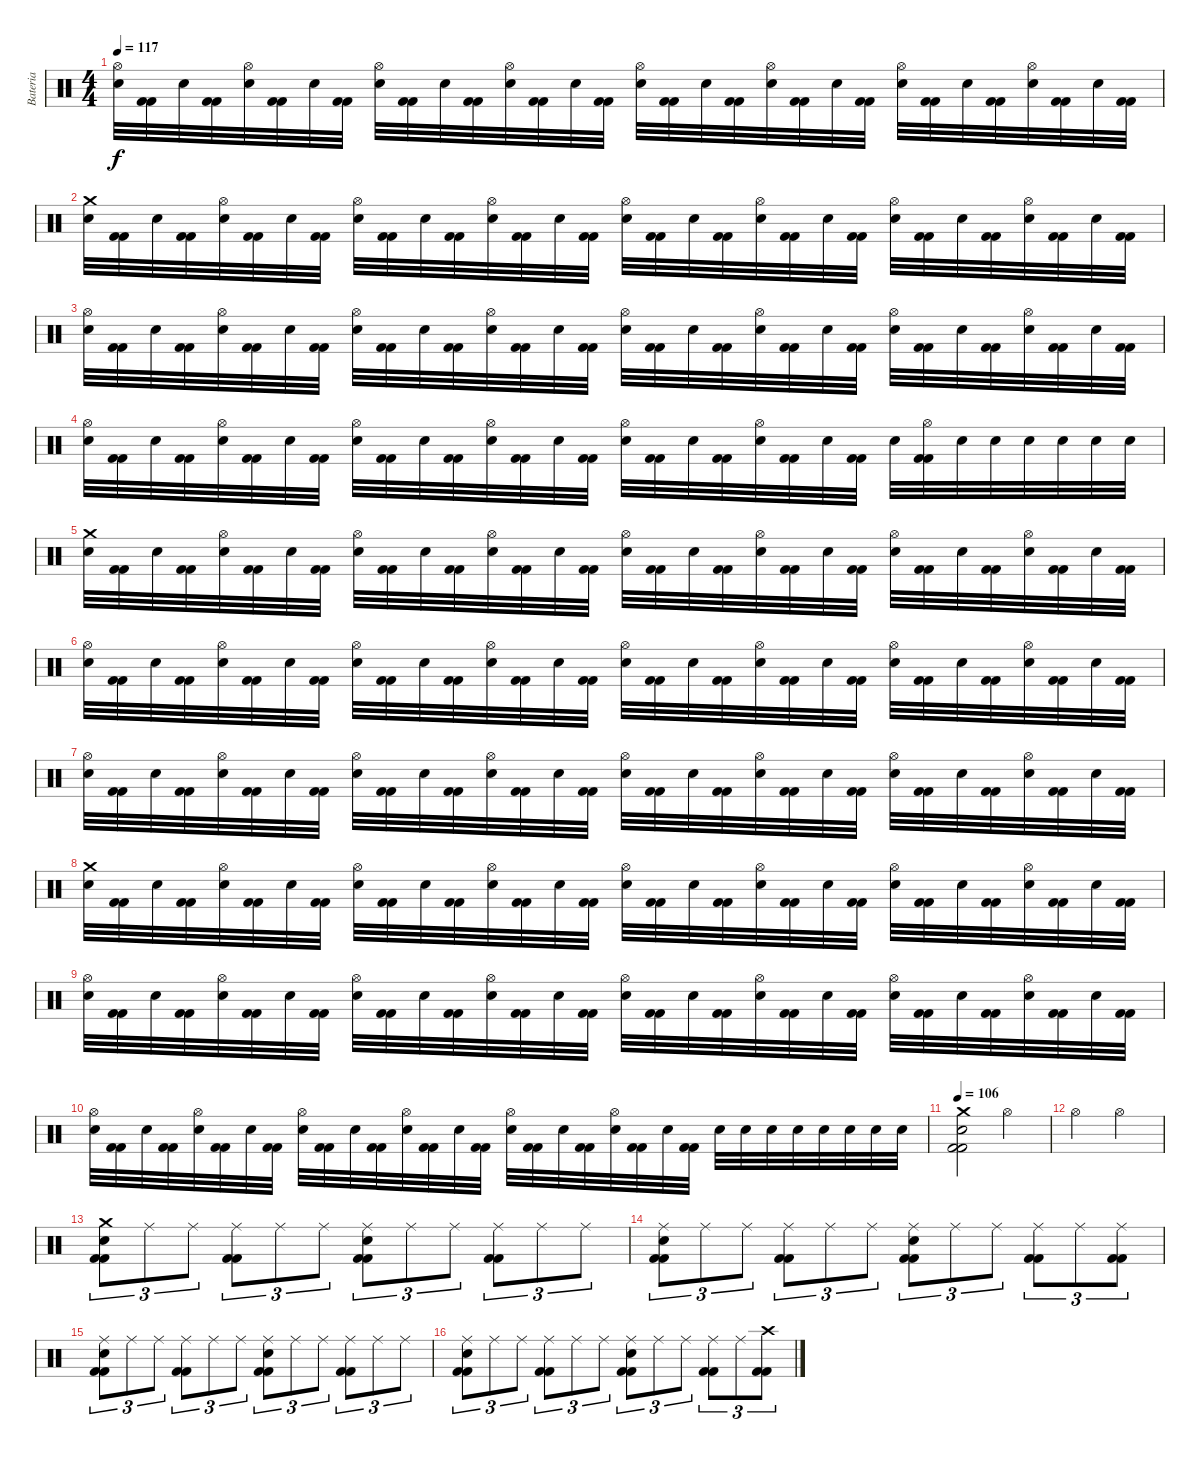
\track ("Bateria" "Bateria") {instrument percussion}
\staff {score}
\articulation defaults
\ts (4 4)
\tempo 117
\clef neutral
\ks c
("Hi-Hat (open)" "Snare (hit) 2").32{dy f} ("Kick (hit) 2" "Kick (hit) 2").32 "Snare (hit) 2".32 ("Kick (hit) 2" "Kick (hit) 2").32 ("Hi-Hat (open)" "Snare (hit) 2").32 ("Kick (hit) 2" "Kick (hit) 2").32 "Snare (hit) 2".32 ("Kick (hit) 2" "Kick (hit) 2").32 ("Hi-Hat (open)" "Snare (hit) 2").32 ("Kick (hit) 2" "Kick (hit) 2").32 "Snare (hit) 2".32 ("Kick (hit) 2" "Kick (hit) 2").32 ("Hi-Hat (open)" "Snare (hit) 2").32 ("Kick (hit) 2" "Kick (hit) 2").32 "Snare (hit) 2".32 ("Kick (hit) 2" "Kick (hit) 2").32 ("Hi-Hat (open)" "Snare (hit) 2").32 ("Kick (hit) 2" "Kick (hit) 2").32 "Snare (hit) 2".32 ("Kick (hit) 2" "Kick (hit) 2").32 ("Hi-Hat (open)" "Snare (hit) 2").32 ("Kick (hit) 2" "Kick (hit) 2").32 "Snare (hit) 2".32 ("Kick (hit) 2" "Kick (hit) 2").32 ("Hi-Hat (open)" "Snare (hit) 2").32 ("Kick (hit) 2" "Kick (hit) 2").32 "Snare (hit) 2".32 ("Kick (hit) 2" "Kick (hit) 2").32 ("Hi-Hat (open)" "Snare (hit) 2").32 ("Kick (hit) 2" "Kick (hit) 2").32 "Snare (hit) 2".32 ("Kick (hit) 2" "Kick (hit) 2").32 |
("Crash medium (hit)" "Snare (hit) 2").32 ("Kick (hit) 2" "Kick (hit) 2").32 "Snare (hit) 2".32 ("Kick (hit) 2" "Kick (hit) 2").32 ("Hi-Hat (open)" "Snare (hit) 2").32 ("Kick (hit) 2" "Kick (hit) 2").32 "Snare (hit) 2".32 ("Kick (hit) 2" "Kick (hit) 2").32 ("Hi-Hat (open)" "Snare (hit) 2").32 ("Kick (hit) 2" "Kick (hit) 2").32 "Snare (hit) 2".32 ("Kick (hit) 2" "Kick (hit) 2").32 ("Hi-Hat (open)" "Snare (hit) 2").32 ("Kick (hit) 2" "Kick (hit) 2").32 "Snare (hit) 2".32 ("Kick (hit) 2" "Kick (hit) 2").32 ("Hi-Hat (open)" "Snare (hit) 2").32 ("Kick (hit) 2" "Kick (hit) 2").32 "Snare (hit) 2".32 ("Kick (hit) 2" "Kick (hit) 2").32 ("Hi-Hat (open)" "Snare (hit) 2").32 ("Kick (hit) 2" "Kick (hit) 2").32 "Snare (hit) 2".32 ("Kick (hit) 2" "Kick (hit) 2").32 ("Hi-Hat (open)" "Snare (hit) 2").32 ("Kick (hit) 2" "Kick (hit) 2").32 "Snare (hit) 2".32 ("Kick (hit) 2" "Kick (hit) 2").32 ("Hi-Hat (open)" "Snare (hit) 2").32 ("Kick (hit) 2" "Kick (hit) 2").32 "Snare (hit) 2".32 ("Kick (hit) 2" "Kick (hit) 2").32 |
("Hi-Hat (open)" "Snare (hit) 2").32 ("Kick (hit) 2" "Kick (hit) 2").32 "Snare (hit) 2".32 ("Kick (hit) 2" "Kick (hit) 2").32 ("Hi-Hat (open)" "Snare (hit) 2").32 ("Kick (hit) 2" "Kick (hit) 2").32 "Snare (hit) 2".32 ("Kick (hit) 2" "Kick (hit) 2").32 ("Hi-Hat (open)" "Snare (hit) 2").32 ("Kick (hit) 2" "Kick (hit) 2").32 "Snare (hit) 2".32 ("Kick (hit) 2" "Kick (hit) 2").32 ("Hi-Hat (open)" "Snare (hit) 2").32 ("Kick (hit) 2" "Kick (hit) 2").32 "Snare (hit) 2".32 ("Kick (hit) 2" "Kick (hit) 2").32 ("Hi-Hat (open)" "Snare (hit) 2").32 ("Kick (hit) 2" "Kick (hit) 2").32 "Snare (hit) 2".32 ("Kick (hit) 2" "Kick (hit) 2").32 ("Hi-Hat (open)" "Snare (hit) 2").32 ("Kick (hit) 2" "Kick (hit) 2").32 "Snare (hit) 2".32 ("Kick (hit) 2" "Kick (hit) 2").32 ("Hi-Hat (open)" "Snare (hit) 2").32 ("Kick (hit) 2" "Kick (hit) 2").32 "Snare (hit) 2".32 ("Kick (hit) 2" "Kick (hit) 2").32 ("Hi-Hat (open)" "Snare (hit) 2").32 ("Kick (hit) 2" "Kick (hit) 2").32 "Snare (hit) 2".32 ("Kick (hit) 2" "Kick (hit) 2").32 |
("Hi-Hat (open)" "Snare (hit) 2").32 ("Kick (hit) 2" "Kick (hit) 2").32 "Snare (hit) 2".32 ("Kick (hit) 2" "Kick (hit) 2").32 ("Hi-Hat (open)" "Snare (hit) 2").32 ("Kick (hit) 2" "Kick (hit) 2").32 "Snare (hit) 2".32 ("Kick (hit) 2" "Kick (hit) 2").32 ("Hi-Hat (open)" "Snare (hit) 2").32 ("Kick (hit) 2" "Kick (hit) 2").32 "Snare (hit) 2".32 ("Kick (hit) 2" "Kick (hit) 2").32 ("Hi-Hat (open)" "Snare (hit) 2").32 ("Kick (hit) 2" "Kick (hit) 2").32 "Snare (hit) 2".32 ("Kick (hit) 2" "Kick (hit) 2").32 ("Hi-Hat (open)" "Snare (hit) 2").32 ("Kick (hit) 2" "Kick (hit) 2").32 "Snare (hit) 2".32 ("Kick (hit) 2" "Kick (hit) 2").32 ("Hi-Hat (open)" "Snare (hit) 2").32 ("Kick (hit) 2" "Kick (hit) 2").32 "Snare (hit) 2".32 ("Kick (hit) 2" "Kick (hit) 2").32 "Snare (hit) 2".32 ("Kick (hit) 2" "Hi-Hat (open)" "Kick (hit) 2").32 "Snare (hit) 2".32 "Snare (hit) 2".32 "Snare (hit) 2".32 "Snare (hit) 2".32 "Snare (hit) 2".32 "Snare (hit) 2".32 |
("Crash medium (hit)" "Snare (hit) 2").32 ("Kick (hit) 2" "Kick (hit) 2").32 "Snare (hit) 2".32 ("Kick (hit) 2" "Kick (hit) 2").32 ("Hi-Hat (open)" "Snare (hit) 2").32 ("Kick (hit) 2" "Kick (hit) 2").32 "Snare (hit) 2".32 ("Kick (hit) 2" "Kick (hit) 2").32 ("Hi-Hat (open)" "Snare (hit) 2").32 ("Kick (hit) 2" "Kick (hit) 2").32 "Snare (hit) 2".32 ("Kick (hit) 2" "Kick (hit) 2").32 ("Hi-Hat (open)" "Snare (hit) 2").32 ("Kick (hit) 2" "Kick (hit) 2").32 "Snare (hit) 2".32 ("Kick (hit) 2" "Kick (hit) 2").32 ("Hi-Hat (open)" "Snare (hit) 2").32 ("Kick (hit) 2" "Kick (hit) 2").32 "Snare (hit) 2".32 ("Kick (hit) 2" "Kick (hit) 2").32 ("Hi-Hat (open)" "Snare (hit) 2").32 ("Kick (hit) 2" "Kick (hit) 2").32 "Snare (hit) 2".32 ("Kick (hit) 2" "Kick (hit) 2").32 ("Hi-Hat (open)" "Snare (hit) 2").32 ("Kick (hit) 2" "Kick (hit) 2").32 "Snare (hit) 2".32 ("Kick (hit) 2" "Kick (hit) 2").32 ("Hi-Hat (open)" "Snare (hit) 2").32 ("Kick (hit) 2" "Kick (hit) 2").32 "Snare (hit) 2".32 ("Kick (hit) 2" "Kick (hit) 2").32 |
("Hi-Hat (open)" "Snare (hit) 2").32 ("Kick (hit) 2" "Kick (hit) 2").32 "Snare (hit) 2".32 ("Kick (hit) 2" "Kick (hit) 2").32 ("Hi-Hat (open)" "Snare (hit) 2").32 ("Kick (hit) 2" "Kick (hit) 2").32 "Snare (hit) 2".32 ("Kick (hit) 2" "Kick (hit) 2").32 ("Hi-Hat (open)" "Snare (hit) 2").32 ("Kick (hit) 2" "Kick (hit) 2").32 "Snare (hit) 2".32 ("Kick (hit) 2" "Kick (hit) 2").32 ("Hi-Hat (open)" "Snare (hit) 2").32 ("Kick (hit) 2" "Kick (hit) 2").32 "Snare (hit) 2".32 ("Kick (hit) 2" "Kick (hit) 2").32 ("Hi-Hat (open)" "Snare (hit) 2").32 ("Kick (hit) 2" "Kick (hit) 2").32 "Snare (hit) 2".32 ("Kick (hit) 2" "Kick (hit) 2").32 ("Hi-Hat (open)" "Snare (hit) 2").32 ("Kick (hit) 2" "Kick (hit) 2").32 "Snare (hit) 2".32 ("Kick (hit) 2" "Kick (hit) 2").32 ("Hi-Hat (open)" "Snare (hit) 2").32 ("Kick (hit) 2" "Kick (hit) 2").32 "Snare (hit) 2".32 ("Kick (hit) 2" "Kick (hit) 2").32 ("Hi-Hat (open)" "Snare (hit) 2").32 ("Kick (hit) 2" "Kick (hit) 2").32 "Snare (hit) 2".32 ("Kick (hit) 2" "Kick (hit) 2").32 |
("Hi-Hat (open)" "Snare (hit) 2").32 ("Kick (hit) 2" "Kick (hit) 2").32 "Snare (hit) 2".32 ("Kick (hit) 2" "Kick (hit) 2").32 ("Hi-Hat (open)" "Snare (hit) 2").32 ("Kick (hit) 2" "Kick (hit) 2").32 "Snare (hit) 2".32 ("Kick (hit) 2" "Kick (hit) 2").32 ("Hi-Hat (open)" "Snare (hit) 2").32 ("Kick (hit) 2" "Kick (hit) 2").32 "Snare (hit) 2".32 ("Kick (hit) 2" "Kick (hit) 2").32 ("Hi-Hat (open)" "Snare (hit) 2").32 ("Kick (hit) 2" "Kick (hit) 2").32 "Snare (hit) 2".32 ("Kick (hit) 2" "Kick (hit) 2").32 ("Hi-Hat (open)" "Snare (hit) 2").32 ("Kick (hit) 2" "Kick (hit) 2").32 "Snare (hit) 2".32 ("Kick (hit) 2" "Kick (hit) 2").32 ("Hi-Hat (open)" "Snare (hit) 2").32 ("Kick (hit) 2" "Kick (hit) 2").32 "Snare (hit) 2".32 ("Kick (hit) 2" "Kick (hit) 2").32 ("Hi-Hat (open)" "Snare (hit) 2").32 ("Kick (hit) 2" "Kick (hit) 2").32 "Snare (hit) 2".32 ("Kick (hit) 2" "Kick (hit) 2").32 ("Hi-Hat (open)" "Snare (hit) 2").32 ("Kick (hit) 2" "Kick (hit) 2").32 "Snare (hit) 2".32 ("Kick (hit) 2" "Kick (hit) 2").32 |
("Crash medium (hit)" "Snare (hit) 2").32 ("Kick (hit) 2" "Kick (hit) 2").32 "Snare (hit) 2".32 ("Kick (hit) 2" "Kick (hit) 2").32 ("Hi-Hat (open)" "Snare (hit) 2").32 ("Kick (hit) 2" "Kick (hit) 2").32 "Snare (hit) 2".32 ("Kick (hit) 2" "Kick (hit) 2").32 ("Hi-Hat (open)" "Snare (hit) 2").32 ("Kick (hit) 2" "Kick (hit) 2").32 "Snare (hit) 2".32 ("Kick (hit) 2" "Kick (hit) 2").32 ("Hi-Hat (open)" "Snare (hit) 2").32 ("Kick (hit) 2" "Kick (hit) 2").32 "Snare (hit) 2".32 ("Kick (hit) 2" "Kick (hit) 2").32 ("Hi-Hat (open)" "Snare (hit) 2").32 ("Kick (hit) 2" "Kick (hit) 2").32 "Snare (hit) 2".32 ("Kick (hit) 2" "Kick (hit) 2").32 ("Hi-Hat (open)" "Snare (hit) 2").32 ("Kick (hit) 2" "Kick (hit) 2").32 "Snare (hit) 2".32 ("Kick (hit) 2" "Kick (hit) 2").32 ("Hi-Hat (open)" "Snare (hit) 2").32 ("Kick (hit) 2" "Kick (hit) 2").32 "Snare (hit) 2".32 ("Kick (hit) 2" "Kick (hit) 2").32 ("Hi-Hat (open)" "Snare (hit) 2").32 ("Kick (hit) 2" "Kick (hit) 2").32 "Snare (hit) 2".32 ("Kick (hit) 2" "Kick (hit) 2").32 |
("Hi-Hat (open)" "Snare (hit) 2").32 ("Kick (hit) 2" "Kick (hit) 2").32 "Snare (hit) 2".32 ("Kick (hit) 2" "Kick (hit) 2").32 ("Hi-Hat (open)" "Snare (hit) 2").32 ("Kick (hit) 2" "Kick (hit) 2").32 "Snare (hit) 2".32 ("Kick (hit) 2" "Kick (hit) 2").32 ("Hi-Hat (open)" "Snare (hit) 2").32 ("Kick (hit) 2" "Kick (hit) 2").32 "Snare (hit) 2".32 ("Kick (hit) 2" "Kick (hit) 2").32 ("Hi-Hat (open)" "Snare (hit) 2").32 ("Kick (hit) 2" "Kick (hit) 2").32 "Snare (hit) 2".32 ("Kick (hit) 2" "Kick (hit) 2").32 ("Hi-Hat (open)" "Snare (hit) 2").32 ("Kick (hit) 2" "Kick (hit) 2").32 "Snare (hit) 2".32 ("Kick (hit) 2" "Kick (hit) 2").32 ("Hi-Hat (open)" "Snare (hit) 2").32 ("Kick (hit) 2" "Kick (hit) 2").32 "Snare (hit) 2".32 ("Kick (hit) 2" "Kick (hit) 2").32 ("Hi-Hat (open)" "Snare (hit) 2").32 ("Kick (hit) 2" "Kick (hit) 2").32 "Snare (hit) 2".32 ("Kick (hit) 2" "Kick (hit) 2").32 ("Hi-Hat (open)" "Snare (hit) 2").32 ("Kick (hit) 2" "Kick (hit) 2").32 "Snare (hit) 2".32 ("Kick (hit) 2" "Kick (hit) 2").32 |
("Hi-Hat (open)" "Snare (hit) 2").32 ("Kick (hit) 2" "Kick (hit) 2").32 "Snare (hit) 2".32 ("Kick (hit) 2" "Kick (hit) 2").32 ("Hi-Hat (open)" "Snare (hit) 2").32 ("Kick (hit) 2" "Kick (hit) 2").32 "Snare (hit) 2".32 ("Kick (hit) 2" "Kick (hit) 2").32 ("Hi-Hat (open)" "Snare (hit) 2").32 ("Kick (hit) 2" "Kick (hit) 2").32 "Snare (hit) 2".32 ("Kick (hit) 2" "Kick (hit) 2").32 ("Hi-Hat (open)" "Snare (hit) 2").32 ("Kick (hit) 2" "Kick (hit) 2").32 "Snare (hit) 2".32 ("Kick (hit) 2" "Kick (hit) 2").32 ("Hi-Hat (open)" "Snare (hit) 2").32 ("Kick (hit) 2" "Kick (hit) 2").32 "Snare (hit) 2".32 ("Kick (hit) 2" "Kick (hit) 2").32 ("Hi-Hat (open)" "Snare (hit) 2").32 ("Kick (hit) 2" "Kick (hit) 2").32 "Snare (hit) 2".32 ("Kick (hit) 2" "Kick (hit) 2").32 "Snare (hit) 2".32 "Snare (hit) 2".32 "Snare (hit) 2".32 "Snare (hit) 2".32 "Snare (hit) 2".32 "Snare (hit) 2".32 "Snare (hit) 2".32 "Snare (hit) 2".32 |
\tempo 106
("Kick (hit) 2" "Kick (hit) 2" "Snare (hit) 2" "Crash medium (hit)").2 "Hi-Hat (open)".2 |
"Hi-Hat (open)".2 "Hi-Hat (open)".2 |
("Kick (hit) 2" "Kick (hit) 2" "Snare (hit) 2" "Crash medium (hit)").8{tu (3 2)} "Ride (middle)".8{tu (3 2)} "Ride (middle)".8{tu (3 2)} ("Kick (hit) 2" "Kick (hit) 2" "Ride (middle)").8{tu (3 2)} "Ride (middle)".8{tu (3 2)} "Ride (middle)".8{tu (3 2)} ("Kick (hit) 2" "Kick (hit) 2" "Snare (hit) 2" "Ride (middle)").8{tu (3 2)} "Ride (middle)".8{tu (3 2)} "Ride (middle)".8{tu (3 2)} ("Kick (hit) 2" "Kick (hit) 2" "Ride (middle)").8{tu (3 2)} "Ride (middle)".8{tu (3 2)} "Ride (middle)".8{tu (3 2)} |
("Kick (hit) 2" "Kick (hit) 2" "Snare (hit) 2" "Ride (middle)").8{tu (3 2)} "Ride (middle)".8{tu (3 2)} "Ride (middle)".8{tu (3 2)} ("Kick (hit) 2" "Kick (hit) 2" "Ride (middle)").8{tu (3 2)} "Ride (middle)".8{tu (3 2)} "Ride (middle)".8{tu (3 2)} ("Kick (hit) 2" "Kick (hit) 2" "Snare (hit) 2" "Ride (middle)").8{tu (3 2)} "Ride (middle)".8{tu (3 2)} "Ride (middle)".8{tu (3 2)} ("Kick (hit) 2" "Kick (hit) 2" "Ride (middle)").8{tu (3 2)} "Ride (middle)".8{tu (3 2)} ("Kick (hit) 2" "Kick (hit) 2" "Ride (middle)").8{tu (3 2)} |
("Kick (hit) 2" "Kick (hit) 2" "Snare (hit) 2" "Ride (middle)").8{tu (3 2)} "Ride (middle)".8{tu (3 2)} "Ride (middle)".8{tu (3 2)} ("Kick (hit) 2" "Kick (hit) 2" "Ride (middle)").8{tu (3 2)} "Ride (middle)".8{tu (3 2)} "Ride (middle)".8{tu (3 2)} ("Kick (hit) 2" "Kick (hit) 2" "Snare (hit) 2" "Ride (middle)").8{tu (3 2)} "Ride (middle)".8{tu (3 2)} "Ride (middle)".8{tu (3 2)} ("Kick (hit) 2" "Kick (hit) 2" "Ride (middle)").8{tu (3 2)} "Ride (middle)".8{tu (3 2)} "Ride (middle)".8{tu (3 2)} |
("Kick (hit) 2" "Kick (hit) 2" "Snare (hit) 2" "Ride (middle)").8{tu (3 2)} "Ride (middle)".8{tu (3 2)} "Ride (middle)".8{tu (3 2)} ("Kick (hit) 2" "Kick (hit) 2" "Ride (middle)").8{tu (3 2)} "Ride (middle)".8{tu (3 2)} "Ride (middle)".8{tu (3 2)} ("Kick (hit) 2" "Kick (hit) 2" "Snare (hit) 2" "Ride (middle)").8{tu (3 2)} "Ride (middle)".8{tu (3 2)} "Ride (middle)".8{tu (3 2)} ("Kick (hit) 2" "Kick (hit) 2" "Ride (middle)").8{tu (3 2)} "Ride (middle)".8{tu (3 2)} ("Kick (hit) 2" "Kick (hit) 2" "Crash high (hit)").8{tu (3 2)}
